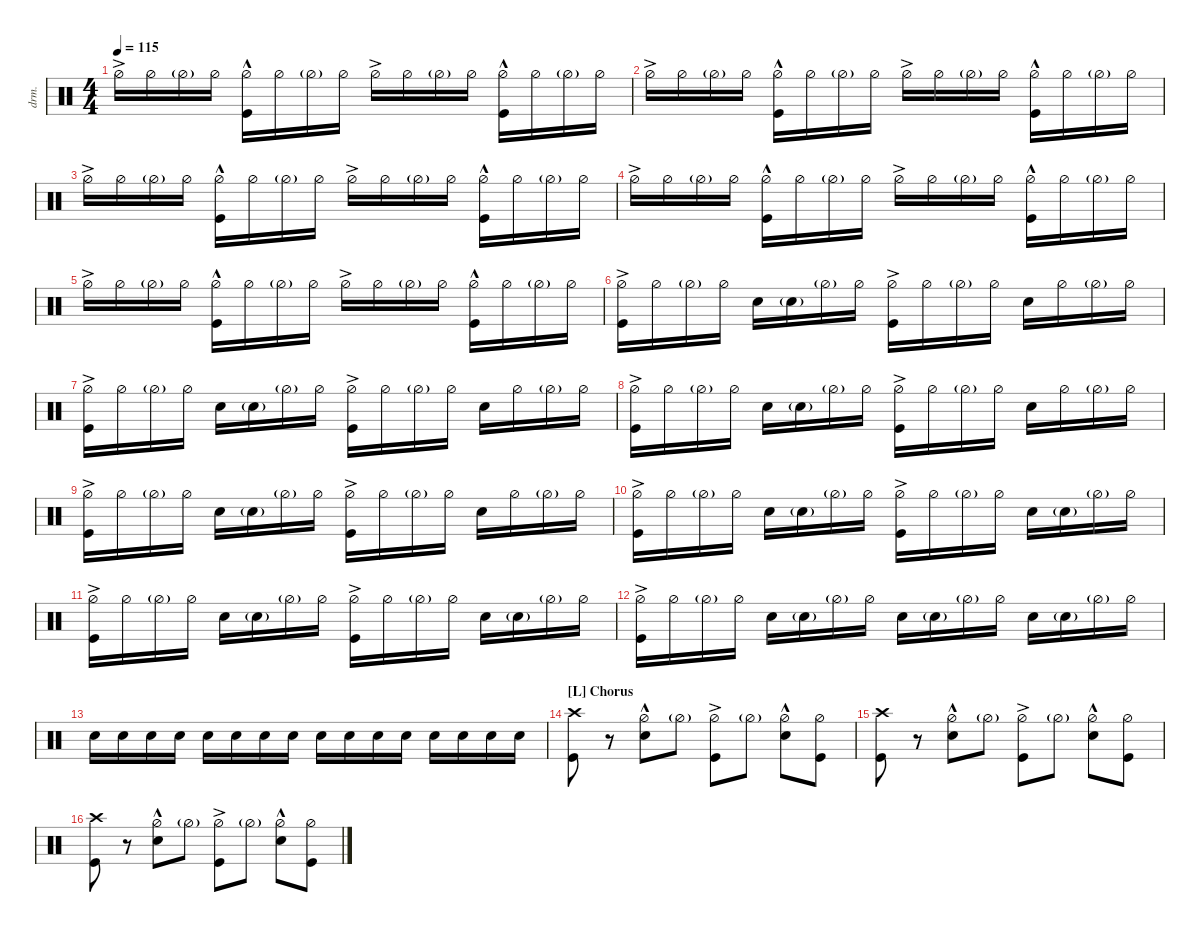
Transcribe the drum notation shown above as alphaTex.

\defaultSystemsLayout 4
\hideDynamics
\bracketExtendMode nobrackets
\otherSystemsTrackNameOrientation horizontal
\track ("Drums" "drm.") {multiBarRest instrument percussion}
\staff
\articulation defaults
\ts (4 4)
\tempo 115
\clef neutral
\ks c "Hi-Hat (half)"{ac}.16{dy mp} "Hi-Hat (half)".16 "Hi-Hat (half)"{g}.16 "Hi-Hat (half)".16
("Hi-Hat (half)"{hac} "Kick (hit)").16 "Hi-Hat (half)".16 "Hi-Hat (half)"{g}.16 "Hi-Hat (half)".16 "Hi-Hat (half)"{ac}.16 "Hi-Hat (half)".16 "Hi-Hat (half)"{g}.16 "Hi-Hat (half)".16 ("Hi-Hat (half)"{hac} "Kick (hit)").16 "Hi-Hat (half)".16 "Hi-Hat (half)"{g}.16 "Hi-Hat (half)".16 |
"Hi-Hat (half)"{ac}.16 "Hi-Hat (half)".16 "Hi-Hat (half)"{g}.16 "Hi-Hat (half)".16 ("Hi-Hat (half)"{hac} "Kick (hit)").16 "Hi-Hat (half)".16 "Hi-Hat (half)"{g}.16 "Hi-Hat (half)".16 "Hi-Hat (half)"{ac}.16 "Hi-Hat (half)".16 "Hi-Hat (half)"{g}.16 "Hi-Hat (half)".16 ("Hi-Hat (half)"{hac} "Kick (hit)").16 "Hi-Hat (half)".16 "Hi-Hat (half)"{g}.16 "Hi-Hat (half)".16 |
"Hi-Hat (half)"{ac}.16 "Hi-Hat (half)".16 "Hi-Hat (half)"{g}.16 "Hi-Hat (half)".16 ("Hi-Hat (half)"{hac} "Kick (hit)").16 "Hi-Hat (half)".16 "Hi-Hat (half)"{g}.16 "Hi-Hat (half)".16 "Hi-Hat (half)"{ac}.16 "Hi-Hat (half)".16 "Hi-Hat (half)"{g}.16 "Hi-Hat (half)".16 ("Hi-Hat (half)"{hac} "Kick (hit)").16 "Hi-Hat (half)".16 "Hi-Hat (half)"{g}.16 "Hi-Hat (half)".16 |
"Hi-Hat (half)"{ac}.16 "Hi-Hat (half)".16 "Hi-Hat (half)"{g}.16 "Hi-Hat (half)".16 ("Hi-Hat (half)"{hac} "Kick (hit)").16 "Hi-Hat (half)".16 "Hi-Hat (half)"{g}.16 "Hi-Hat (half)".16 "Hi-Hat (half)"{ac}.16 "Hi-Hat (half)".16 "Hi-Hat (half)"{g}.16 "Hi-Hat (half)".16 ("Hi-Hat (half)"{hac} "Kick (hit)").16 "Hi-Hat (half)".16 "Hi-Hat (half)"{g}.16 "Hi-Hat (half)".16 |
"Hi-Hat (half)"{ac}.16 "Hi-Hat (half)".16 "Hi-Hat (half)"{g}.16 "Hi-Hat (half)".16 ("Hi-Hat (half)"{hac} "Kick (hit)").16 "Hi-Hat (half)".16 "Hi-Hat (half)"{g}.16 "Hi-Hat (half)".16 "Hi-Hat (half)"{ac}.16 "Hi-Hat (half)".16 "Hi-Hat (half)"{g}.16 "Hi-Hat (half)".16 ("Hi-Hat (half)"{hac} "Kick (hit)").16 "Hi-Hat (half)".16 "Hi-Hat (half)"{g}.16 "Hi-Hat (half)".16 |
("Hi-Hat (half)"{ac} "Kick (hit)").16{dy mf} "Hi-Hat (half)".16 "Hi-Hat (half)"{g}.16 "Hi-Hat (half)".16 "Snare (hit) 2".16 "Snare (hit) 2"{g}.16 "Hi-Hat (half)"{g}.16 "Hi-Hat (half)".16 ("Hi-Hat (half)"{ac} "Kick (hit)").16 "Hi-Hat (half)".16 "Hi-Hat (half)"{g}.16 "Hi-Hat (half)".16 "Snare (hit) 2".16 "Hi-Hat (half)".16 "Hi-Hat (half)"{g}.16 "Hi-Hat (half)".16 |
("Hi-Hat (half)"{ac} "Kick (hit)").16 "Hi-Hat (half)".16 "Hi-Hat (half)"{g}.16 "Hi-Hat (half)".16 "Snare (hit) 2".16 "Snare (hit) 2"{g}.16 "Hi-Hat (half)"{g}.16 "Hi-Hat (half)".16 ("Hi-Hat (half)"{ac} "Kick (hit)").16 "Hi-Hat (half)".16 "Hi-Hat (half)"{g}.16 "Hi-Hat (half)".16 "Snare (hit) 2".16 "Hi-Hat (half)".16 "Hi-Hat (half)"{g}.16 "Hi-Hat (half)".16 |
("Hi-Hat (half)"{ac} "Kick (hit)").16 "Hi-Hat (half)".16 "Hi-Hat (half)"{g}.16 "Hi-Hat (half)".16 "Snare (hit) 2".16 "Snare (hit) 2"{g}.16 "Hi-Hat (half)"{g}.16 "Hi-Hat (half)".16 ("Hi-Hat (half)"{ac} "Kick (hit)").16 "Hi-Hat (half)".16 "Hi-Hat (half)"{g}.16 "Hi-Hat (half)".16 "Snare (hit) 2".16 "Hi-Hat (half)".16 "Hi-Hat (half)"{g}.16 "Hi-Hat (half)".16 |
("Hi-Hat (half)"{ac} "Kick (hit)").16 "Hi-Hat (half)".16 "Hi-Hat (half)"{g}.16 "Hi-Hat (half)".16 "Snare (hit) 2".16 "Snare (hit) 2"{g}.16 "Hi-Hat (half)"{g}.16 "Hi-Hat (half)".16 ("Hi-Hat (half)"{ac} "Kick (hit)").16 "Hi-Hat (half)".16 "Hi-Hat (half)"{g}.16 "Hi-Hat (half)".16 "Snare (hit) 2".16 "Hi-Hat (half)".16 "Hi-Hat (half)"{g}.16 "Hi-Hat (half)".16 |
("Hi-Hat (half)"{ac} "Kick (hit)").16 "Hi-Hat (half)".16 "Hi-Hat (half)"{g}.16 "Hi-Hat (half)".16 "Snare (hit) 2".16 "Snare (hit) 2"{g}.16 "Hi-Hat (half)"{g}.16 "Hi-Hat (half)".16 ("Hi-Hat (half)"{ac} "Kick (hit)").16 "Hi-Hat (half)".16 "Hi-Hat (half)"{g}.16 "Hi-Hat (half)".16 "Snare (hit) 2".16 "Snare (hit) 2"{g}.16 "Hi-Hat (half)"{g}.16 "Hi-Hat (half)".16 |
("Hi-Hat (half)"{ac} "Kick (hit)").16 "Hi-Hat (half)".16 "Hi-Hat (half)"{g}.16 "Hi-Hat (half)".16 "Snare (hit) 2".16 "Snare (hit) 2"{g}.16 "Hi-Hat (half)"{g}.16 "Hi-Hat (half)".16 ("Hi-Hat (half)"{ac} "Kick (hit)").16 "Hi-Hat (half)".16 "Hi-Hat (half)"{g}.16 "Hi-Hat (half)".16 "Snare (hit) 2".16 "Snare (hit) 2"{g}.16 "Hi-Hat (half)"{g}.16 "Hi-Hat (half)".16 |
("Hi-Hat (half)"{ac} "Kick (hit)").16 "Hi-Hat (half)".16 "Hi-Hat (half)"{g}.16 "Hi-Hat (half)".16 "Snare (hit) 2".16 "Snare (hit) 2"{g}.16 "Hi-Hat (half)"{g}.16 "Hi-Hat (half)".16 "Snare (hit) 2".16 "Snare (hit) 2"{g}.16 "Hi-Hat (half)"{g}.16 "Hi-Hat (half)".16 "Snare (hit) 2".16 "Snare (hit) 2"{g}.16 "Hi-Hat (half)"{g}.16 "Hi-Hat (half)".16 |
"Snare (hit) 2".16{dy f} "Snare (hit) 2".16 "Snare (hit) 2".16 "Snare (hit) 2".16 "Snare (hit) 2".16 "Snare (hit) 2".16 "Snare (hit) 2".16 "Snare (hit) 2".16 "Snare (hit) 2".16 "Snare (hit) 2".16 "Snare (hit) 2".16 "Snare (hit) 2".16 "Snare (hit) 2".16 "Snare (hit) 2".16 "Snare (hit) 2".16 "Snare (hit) 2".16 |
\section ("L" "Chorus")
("Kick (hit)" "Crash high (hit)").8 r.8 ("Hi-Hat (half)"{hac} "Snare (hit) 2").8 "Hi-Hat (half)"{g}.8 ("Kick (hit)" "Hi-Hat (half)"{ac}).8 "Hi-Hat (half)"{g}.8 ("Hi-Hat (half)"{hac} "Snare (hit) 2").8 ("Hi-Hat (half)" "Kick (hit)").8 |
("Kick (hit)" "Crash high (hit)").8 r.8 ("Hi-Hat (half)"{hac} "Snare (hit) 2").8 "Hi-Hat (half)"{g}.8 ("Kick (hit)" "Hi-Hat (half)"{ac}).8 "Hi-Hat (half)"{g}.8 ("Hi-Hat (half)"{hac} "Snare (hit) 2").8 ("Hi-Hat (half)" "Kick (hit)").8 |
("Kick (hit)" "Crash high (hit)").8 r.8 ("Hi-Hat (half)"{hac} "Snare (hit) 2").8 "Hi-Hat (half)"{g}.8 ("Kick (hit)" "Hi-Hat (half)"{ac}).8 "Hi-Hat (half)"{g}.8 ("Hi-Hat (half)"{hac} "Snare (hit) 2").8 ("Hi-Hat (half)" "Kick (hit)").8
